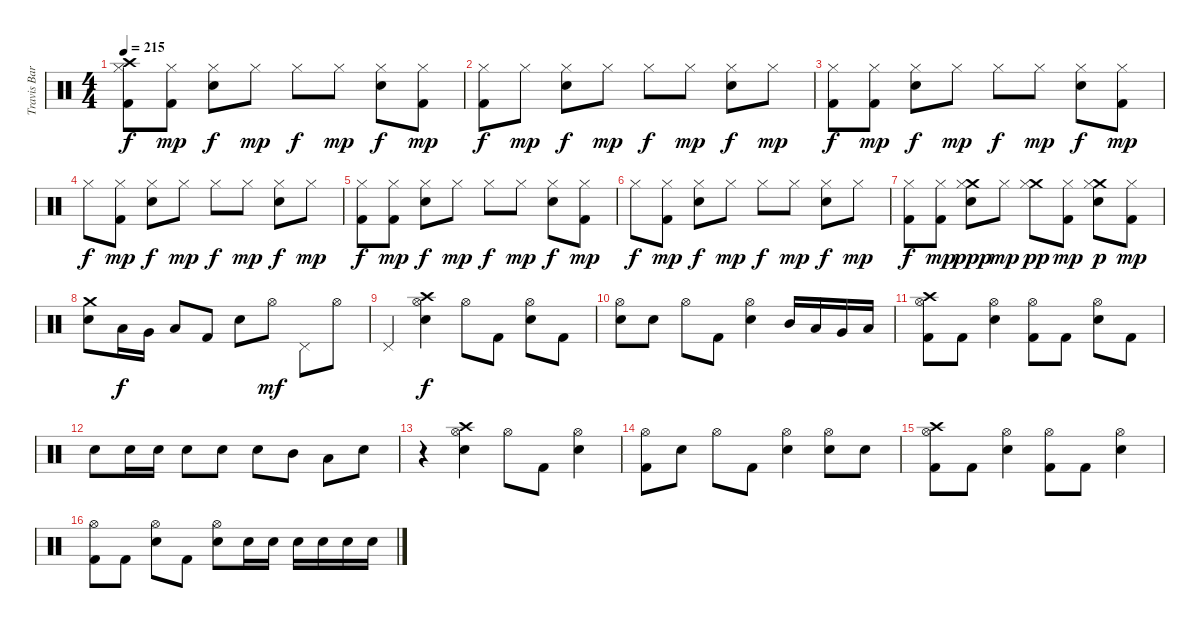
\track ("Travis Barker" "Travis Bar") {instrument percussion}
\staff {score}
\articulation defaults
\ts (4 4)
\tempo 215
\clef neutral
\ks c
("Crash high (hit)" "Hi-Hat (closed)" "Kick (hit) 2").8{dy f} ("Hi-Hat (closed)" "Kick (hit) 2").8{dy mp} ("Hi-Hat (closed)" "Snare (hit) 2").8{dy f} "Hi-Hat (closed)".8{dy mp} "Hi-Hat (closed)".8{dy f} "Hi-Hat (closed)".8{dy mp} ("Hi-Hat (closed)" "Snare (hit) 2").8{dy f} ("Hi-Hat (closed)" "Kick (hit) 2").8{dy mp} |
("Hi-Hat (closed)" "Kick (hit) 2").8{dy f} "Hi-Hat (closed)".8{dy mp} ("Hi-Hat (closed)" "Snare (hit) 2").8{dy f} "Hi-Hat (closed)".8{dy mp} "Hi-Hat (closed)".8{dy f} "Hi-Hat (closed)".8{dy mp} ("Hi-Hat (closed)" "Snare (hit) 2").8{dy f} "Hi-Hat (closed)".8{dy mp} |
("Hi-Hat (closed)" "Kick (hit) 2").8{dy f} ("Hi-Hat (closed)" "Kick (hit) 2").8{dy mp} ("Hi-Hat (closed)" "Snare (hit) 2").8{dy f} "Hi-Hat (closed)".8{dy mp} "Hi-Hat (closed)".8{dy f} "Hi-Hat (closed)".8{dy mp} ("Hi-Hat (closed)" "Snare (hit) 2").8{dy f} ("Hi-Hat (closed)" "Kick (hit) 2").8{dy mp} |
"Hi-Hat (closed)".8{dy f} ("Hi-Hat (closed)" "Kick (hit) 2").8{dy mp} ("Hi-Hat (closed)" "Snare (hit) 2").8{dy f} "Hi-Hat (closed)".8{dy mp} "Hi-Hat (closed)".8{dy f} "Hi-Hat (closed)".8{dy mp} ("Hi-Hat (closed)" "Snare (hit) 2").8{dy f} "Hi-Hat (closed)".8{dy mp} |
("Hi-Hat (closed)" "Kick (hit) 2").8{dy f} ("Hi-Hat (closed)" "Kick (hit) 2").8{dy mp} ("Hi-Hat (closed)" "Snare (hit) 2").8{dy f} "Hi-Hat (closed)".8{dy mp} "Hi-Hat (closed)".8{dy f} "Hi-Hat (closed)".8{dy mp} ("Hi-Hat (closed)" "Snare (hit) 2").8{dy f} ("Hi-Hat (closed)" "Kick (hit) 2").8{dy mp} |
"Hi-Hat (closed)".8{dy f} ("Hi-Hat (closed)" "Kick (hit) 2").8{dy mp} ("Hi-Hat (closed)" "Snare (hit) 2").8{dy f} "Hi-Hat (closed)".8{dy mp} "Hi-Hat (closed)".8{dy f} "Hi-Hat (closed)".8{dy mp} ("Hi-Hat (closed)" "Snare (hit) 2").8{dy f} "Hi-Hat (closed)".8{dy mp} |
("Hi-Hat (closed)" "Kick (hit) 2").8{dy f} ("Hi-Hat (closed)" "Kick (hit) 2").8{dy mp} ("Crash medium (hit)" "Hi-Hat (closed)" "Snare (hit) 2").8{dy ppp} "Hi-Hat (closed)".8{dy mp} ("Crash medium (hit)" "Hi-Hat (closed)").8{dy pp} ("Hi-Hat (closed)" "Kick (hit) 2").8{dy mp} ("Crash medium (hit)" "Hi-Hat (closed)" "Snare (hit) 2").8{dy p} ("Hi-Hat (closed)" "Kick (hit) 2").8{dy mp} |
("Crash medium (hit)" "Snare (hit) 2").8 "Low Tom (hit)".16{dy f} "Very Low Tom (hit)".16 "Low Floor Tom (hit)".8 "Kick (hit) 2".8 "Snare (hit) 2".8 "Hi-Hat (open)".8{dy mf} "Pedal Hi-Hat (hit)".8 "Hi-Hat (open)".8 |
"Pedal Hi-Hat (hit)".4 ("Crash high (hit)" "Hi-Hat (open)" "Snare (hit) 2").4{dy f} "Hi-Hat (open)".8 "Kick (hit) 2".8 ("Hi-Hat (open)" "Snare (hit) 2").8 "Kick (hit) 2".8 |
("Hi-Hat (open)" "Snare (hit) 2").8 "Snare (hit) 2".8 "Hi-Hat (open)".8 "Kick (hit) 2".8 ("Hi-Hat (open)" "Snare (hit) 2").4 "Mid Tom (hit)".16 "Low Tom (hit)".16 "Very Low Tom (hit)".16 "Low Floor Tom (hit)".16 |
("Crash high (hit)" "Hi-Hat (open)" "Kick (hit) 2").8 "Kick (hit) 2".8 ("Hi-Hat (open)" "Snare (hit) 2").4 ("Hi-Hat (open)" "Kick (hit) 2").8 "Kick (hit) 2".8 ("Hi-Hat (open)" "Snare (hit) 2").8 "Kick (hit) 2".8 |
"Snare (hit) 2".8 "Snare (hit) 2".16 "Snare (hit) 2".16 "Snare (hit) 2".8 "Snare (hit) 2".8 "Snare (hit) 2".8 "Mid Tom (hit)".8 "Low Tom (hit)".8 "Snare (hit) 2".8 |
r.4 ("Crash high (hit)" "Hi-Hat (open)" "Snare (hit) 2").4 "Hi-Hat (open)".8 "Kick (hit) 2".8 ("Hi-Hat (open)" "Snare (hit) 2").4 |
("Hi-Hat (open)" "Kick (hit) 2").8 "Snare (hit) 2".8 "Hi-Hat (open)".8 "Kick (hit) 2".8 ("Hi-Hat (open)" "Snare (hit) 2").4 ("Hi-Hat (open)" "Snare (hit) 2").8 "Snare (hit) 2".8 |
("Crash high (hit)" "Hi-Hat (open)" "Kick (hit) 2").8 "Kick (hit) 2".8 ("Hi-Hat (open)" "Snare (hit) 2").4 ("Hi-Hat (open)" "Kick (hit) 2").8 "Kick (hit) 2".8 ("Hi-Hat (open)" "Snare (hit) 2").4 |
("Hi-Hat (open)" "Kick (hit) 2").8 "Kick (hit) 2".8 ("Hi-Hat (open)" "Snare (hit) 2").8 "Kick (hit) 2".8 ("Hi-Hat (open)" "Snare (hit) 2").8 "Snare (hit) 2".16 "Snare (hit) 2".16 "Snare (hit) 2".16 "Snare (hit) 2".16 "Snare (hit) 2".16 "Snare (hit) 2".16
